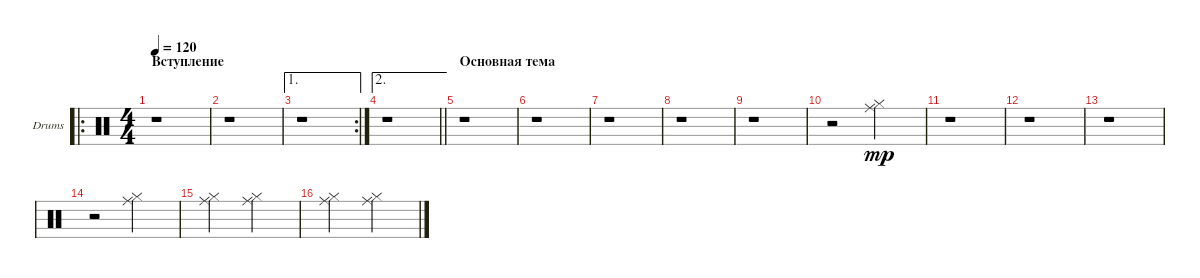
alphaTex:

\bracketExtendMode groupsimilarinstruments
\firstSystemTrackNameOrientation horizontal
\otherSystemsTrackNameOrientation horizontal
\track ("Drumkit" "Drums") {instrument percussion}
\staff {score}
\articulation defaults
\ro
\ts (4 4)
\beaming (8 2 2 2 2)
\section ("" "Вступление")
\tempo 120
\clef neutral
\ks c
r.1{dy mp} |
r.1 |
\ae 1
\rc 2
r.1 |
\ae 2
\barLineRight lightlight
r.1 |
\section ("" "Основная тема")
r.1 |
r.1 |
r.1 |
r.1 |
r.1 |
r.2 ("Hi-Hat (closed)" "Ride (middle)").2 |
r.1 |
r.1 |
r.1 |
r.2 ("Hi-Hat (closed)" "Ride (middle)").2 |
("Hi-Hat (closed)" "Ride (middle)").2 ("Hi-Hat (closed)" "Ride (middle)").2 |
("Hi-Hat (closed)" "Ride (middle)").2 ("Hi-Hat (closed)" "Ride (middle)").2
